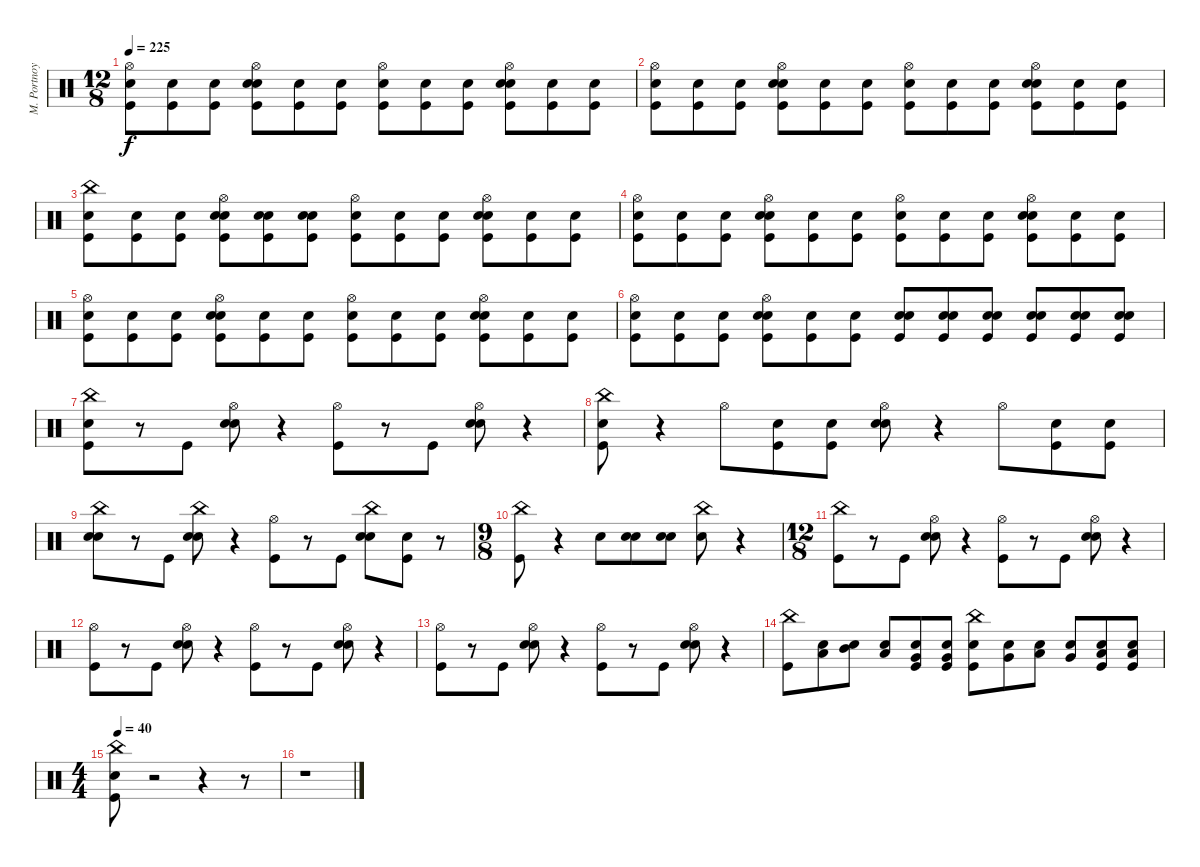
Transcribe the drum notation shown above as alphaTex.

\track ("M. Portnoy" "M. Portnoy") {instrument percussion}
\staff {score}
\articulation defaults
\ts (12 8)
\tempo 225
\clef neutral
\ks c
("Snare (hit)" "Kick (hit)" "Hi-Hat (open)").8{dy f} ("Snare (hit)" "Kick (hit)").8 ("Snare (hit)" "Kick (hit)").8 ("Snare (hit)" "Kick (hit)" "Snare (hit) 2" "Hi-Hat (open)").8 ("Snare (hit)" "Kick (hit)").8 ("Snare (hit)" "Kick (hit)").8 ("Snare (hit)" "Kick (hit)" "Hi-Hat (open)").8 ("Snare (hit)" "Kick (hit)").8 ("Snare (hit)" "Kick (hit)").8 ("Snare (hit)" "Kick (hit)" "Snare (hit) 2" "Hi-Hat (open)").8 ("Snare (hit)" "Kick (hit)").8 ("Snare (hit)" "Kick (hit)").8 |
("Snare (hit)" "Kick (hit)" "Hi-Hat (open)").8 ("Snare (hit)" "Kick (hit)").8 ("Snare (hit)" "Kick (hit)").8 ("Snare (hit)" "Kick (hit)" "Snare (hit) 2" "Hi-Hat (open)").8 ("Snare (hit)" "Kick (hit)").8 ("Snare (hit)" "Kick (hit)").8 ("Snare (hit)" "Kick (hit)" "Hi-Hat (open)").8 ("Snare (hit)" "Kick (hit)").8 ("Snare (hit)" "Kick (hit)").8 ("Snare (hit)" "Kick (hit)" "Snare (hit) 2" "Hi-Hat (open)").8 ("Snare (hit)" "Kick (hit)").8 ("Snare (hit)" "Kick (hit)").8 |
("Snare (hit)" "Kick (hit)" "China (hit)").8 ("Snare (hit)" "Kick (hit)").8 ("Snare (hit)" "Kick (hit)").8 ("Snare (hit)" "Kick (hit)" "Snare (hit) 2" "Hi-Hat (open)").8 ("Snare (hit)" "Kick (hit)" "Snare (hit) 2").8 ("Snare (hit)" "Kick (hit)" "Snare (hit) 2").8 ("Snare (hit)" "Kick (hit)" "Hi-Hat (open)").8 ("Snare (hit)" "Kick (hit)").8 ("Snare (hit)" "Kick (hit)").8 ("Snare (hit)" "Kick (hit)" "Snare (hit) 2" "Hi-Hat (open)").8 ("Snare (hit)" "Kick (hit)").8 ("Snare (hit)" "Kick (hit)").8 |
("Snare (hit)" "Kick (hit)" "Hi-Hat (open)").8 ("Snare (hit)" "Kick (hit)").8 ("Snare (hit)" "Kick (hit)").8 ("Snare (hit)" "Kick (hit)" "Snare (hit) 2" "Hi-Hat (open)").8 ("Snare (hit)" "Kick (hit)").8 ("Snare (hit)" "Kick (hit)").8 ("Snare (hit)" "Kick (hit)" "Hi-Hat (open)").8 ("Snare (hit)" "Kick (hit)").8 ("Snare (hit)" "Kick (hit)").8 ("Snare (hit)" "Kick (hit)" "Snare (hit) 2" "Hi-Hat (open)").8 ("Snare (hit)" "Kick (hit)").8 ("Snare (hit)" "Kick (hit)").8 |
("Snare (hit)" "Kick (hit)" "Hi-Hat (open)").8 ("Snare (hit)" "Kick (hit)").8 ("Snare (hit)" "Kick (hit)").8 ("Snare (hit)" "Kick (hit)" "Snare (hit) 2" "Hi-Hat (open)").8 ("Snare (hit)" "Kick (hit)").8 ("Snare (hit)" "Kick (hit)").8 ("Snare (hit)" "Kick (hit)" "Hi-Hat (open)").8 ("Snare (hit)" "Kick (hit)").8 ("Snare (hit)" "Kick (hit)").8 ("Snare (hit)" "Kick (hit)" "Snare (hit) 2" "Hi-Hat (open)").8 ("Snare (hit)" "Kick (hit)").8 ("Snare (hit)" "Kick (hit)").8 |
("Snare (hit)" "Kick (hit)" "Hi-Hat (open)").8 ("Snare (hit)" "Kick (hit)").8 ("Snare (hit)" "Kick (hit)").8 ("Snare (hit)" "Kick (hit)" "Snare (hit) 2" "Hi-Hat (open)").8 ("Snare (hit)" "Kick (hit)").8 ("Snare (hit)" "Kick (hit)").8 ("Snare (hit)" "Kick (hit)" "Snare (hit) 2").8 ("Snare (hit)" "Kick (hit)" "Snare (hit) 2").8 ("Snare (hit)" "Kick (hit)" "Snare (hit) 2").8 ("Snare (hit)" "Kick (hit)" "Snare (hit) 2").8 ("Snare (hit)" "Kick (hit)" "Snare (hit) 2").8 ("Snare (hit)" "Kick (hit)" "Snare (hit) 2").8 |
("Snare (hit)" "Kick (hit)" "China (hit)").8 r.8 "Kick (hit)".8 ("Snare (hit)" "Snare (hit) 2" "Hi-Hat (open)").8 r.4 ("Kick (hit)" "Hi-Hat (open)").8 r.8 "Kick (hit)".8 ("Snare (hit)" "Snare (hit) 2" "Hi-Hat (open)").8 r.4 |
("Kick (hit)" "Snare (hit) 2" "China (hit)").8 r.4 "Hi-Hat (open)".8 ("Snare (hit)" "Kick (hit)").8 ("Snare (hit)" "Kick (hit)").8 ("Snare (hit)" "Snare (hit) 2" "Hi-Hat (open)").8 r.4 "Hi-Hat (open)".8 ("Snare (hit)" "Kick (hit)").8 ("Snare (hit)" "Kick (hit)").8 |
("Snare (hit)" "Snare (hit) 2" "China (hit)").8 r.8 "Kick (hit)".8 ("Snare (hit)" "Snare (hit) 2" "China (hit)").8 r.4 ("Kick (hit)" "Hi-Hat (open)").8 r.8 "Kick (hit)".8 ("Snare (hit)" "Snare (hit) 2" "China (hit)").8 ("Snare (hit)" "Kick (hit)").8 r.8 |
\ts (9 8)
("Kick (hit)" "China (hit)").8 r.4 "Snare (hit) 2".8 ("Snare (hit)" "Snare (hit) 2").8 ("Snare (hit)" "Snare (hit) 2").8 ("Snare (hit)" "China (hit)").8 r.4 |
\ts (12 8)
("Kick (hit)" "China (hit)").8 r.8 "Kick (hit)".8 ("Snare (hit)" "Snare (hit) 2" "Hi-Hat (open)").8 r.4 ("Kick (hit)" "Hi-Hat (open)").8 r.8 "Kick (hit)".8 ("Snare (hit)" "Snare (hit) 2" "Hi-Hat (open)").8 r.4 |
("Kick (hit)" "Hi-Hat (open)").8 r.8 "Kick (hit)".8 ("Snare (hit)" "Snare (hit) 2" "Hi-Hat (open)").8 r.4 ("Kick (hit)" "Hi-Hat (open)").8 r.8 "Kick (hit)".8 ("Snare (hit)" "Snare (hit) 2" "Hi-Hat (open)").8 r.4 |
("Kick (hit)" "Hi-Hat (open)").8 r.8 "Kick (hit)".8 ("Snare (hit)" "Snare (hit) 2" "Hi-Hat (open)").8 r.4 ("Kick (hit)" "Hi-Hat (open)").8 r.8 "Kick (hit)".8 ("Snare (hit)" "Snare (hit) 2" "Hi-Hat (open)").8 r.4 |
("Kick (hit)" "China (hit)").8 ("Snare (hit)" "Low Tom (hit)").8 ("Snare (hit)" "Mid Tom (hit)").8 ("Snare (hit)" "Low Tom (hit)").8 ("Snare (hit)" "Kick (hit)" "Very Low Tom (hit)").8 ("Snare (hit)" "Kick (hit)" "Very Low Tom (hit)").8 ("Snare (hit)" "Kick (hit)" "China (hit)").8 ("Snare (hit)" "Very Low Tom (hit)").8 ("Snare (hit)" "Low Tom (hit)").8 ("Snare (hit)" "Very Low Tom (hit)").8 ("Snare (hit)" "Kick (hit)" "Low Floor Tom (hit)").8 ("Snare (hit)" "Kick (hit)" "Low Floor Tom (hit)").8 |
\ts (4 4)
\tempo 40
("Snare (hit)" "Kick (hit)" "China (hit)").8 r.2 r.4 r.8 |
r.1
